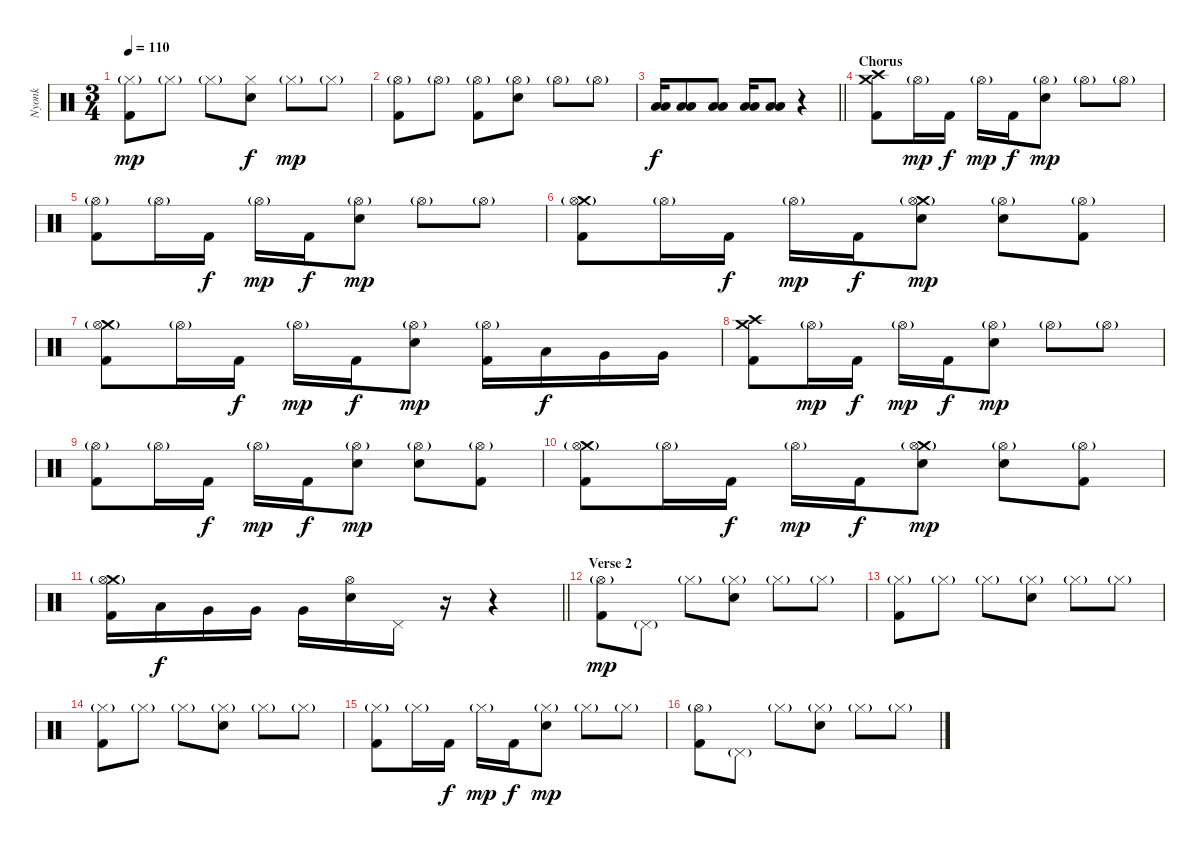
\track ("Nyonk" "Nyonk") {instrument percussion}
\staff {score}
\articulation defaults
\ts (3 4)
\tempo 110
\clef neutral
\ks c
("Hi-Hat (closed)"{g} "Kick (hit) 2").8{dy mp} "Hi-Hat (closed)"{g}.8 "Hi-Hat (closed)"{g}.8 ("Hi-Hat (closed)" "Electric Snare (hit)").8{dy f} "Hi-Hat (closed)"{g}.8{dy mp} "Hi-Hat (closed)"{g}.8 |
("Hi-Hat (open)"{g} "Kick (hit) 2").8 "Hi-Hat (open)"{g}.8 ("Hi-Hat (open)"{g} "Kick (hit) 2").8 ("Hi-Hat (open)"{g} "Electric Snare (hit)").8 "Hi-Hat (open)"{g}.8 "Hi-Hat (open)"{g}.8 |
\barLineRight lightlight
("Low Floor Tom (hit)" "Low Floor Tom (hit)").16{dy f} ("Low Floor Tom (hit)" "Low Floor Tom (hit)").8 ("Low Floor Tom (hit)" "Low Floor Tom (hit)").8 ("Low Floor Tom (hit)" "Low Floor Tom (hit)").16 ("Low Floor Tom (hit)" "Low Floor Tom (hit)").8 r.4 |
\section ("" "Chorus")
("Crash medium (hit)" "Crash high (hit)" "Kick (hit) 2").8 "Hi-Hat (open)"{g}.16{dy mp} "Kick (hit) 2".16{dy f} "Hi-Hat (open)"{g}.16{dy mp} "Kick (hit) 2".16{dy f} ("Hi-Hat (open)"{g} "Electric Snare (hit)").8{dy mp} "Hi-Hat (open)"{g}.8 "Hi-Hat (open)"{g}.8 |
("Hi-Hat (open)"{g} "Kick (hit) 2").8 "Hi-Hat (open)"{g}.16 "Kick (hit) 2".16{dy f} "Hi-Hat (open)"{g}.16{dy mp} "Kick (hit) 2".16{dy f} ("Hi-Hat (open)"{g} "Electric Snare (hit)").8{dy mp} "Hi-Hat (open)"{g}.8 "Hi-Hat (open)"{g}.8 |
("Crash medium (hit)" "Hi-Hat (open)"{g} "Kick (hit) 2").8 "Hi-Hat (open)"{g}.16 "Kick (hit) 2".16{dy f} "Hi-Hat (open)"{g}.16{dy mp} "Kick (hit) 2".16{dy f} ("Crash medium (hit)" "Hi-Hat (open)"{g} "Electric Snare (hit)").8{dy mp} ("Hi-Hat (open)"{g} "Electric Snare (hit)").8 ("Hi-Hat (open)"{g} "Kick (hit) 2").8 |
("Crash medium (hit)" "Hi-Hat (open)"{g} "Kick (hit) 2").8 "Hi-Hat (open)"{g}.16 "Kick (hit) 2".16{dy f} "Hi-Hat (open)"{g}.16{dy mp} "Kick (hit) 2".16{dy f} ("Hi-Hat (open)"{g} "Electric Snare (hit)").8{dy mp} ("Hi-Hat (open)"{g} "Kick (hit) 2").16 "Low Tom (hit)".16{dy f} "Very Low Tom (hit)".16 "Very Low Tom (hit)".16 |
("Crash medium (hit)" "Crash high (hit)" "Kick (hit) 2").8 "Hi-Hat (open)"{g}.16{dy mp} "Kick (hit) 2".16{dy f} "Hi-Hat (open)"{g}.16{dy mp} "Kick (hit) 2".16{dy f} ("Hi-Hat (open)"{g} "Electric Snare (hit)").8{dy mp} "Hi-Hat (open)"{g}.8 "Hi-Hat (open)"{g}.8 |
("Hi-Hat (open)"{g} "Kick (hit) 2").8 "Hi-Hat (open)"{g}.16 "Kick (hit) 2".16{dy f} "Hi-Hat (open)"{g}.16{dy mp} "Kick (hit) 2".16{dy f} ("Hi-Hat (open)"{g} "Electric Snare (hit)").8{dy mp} ("Hi-Hat (open)"{g} "Electric Snare (hit)").8 ("Hi-Hat (open)"{g} "Kick (hit) 2").8 |
("Crash medium (hit)" "Hi-Hat (open)"{g} "Kick (hit) 2").8 "Hi-Hat (open)"{g}.16 "Kick (hit) 2".16{dy f} "Hi-Hat (open)"{g}.16{dy mp} "Kick (hit) 2".16{dy f} ("Crash medium (hit)" "Hi-Hat (open)"{g} "Electric Snare (hit)").8{dy mp} ("Hi-Hat (open)"{g} "Electric Snare (hit)").8 ("Hi-Hat (open)"{g} "Kick (hit) 2").8 |
\barLineRight lightlight
("Crash medium (hit)" "Hi-Hat (open)"{g} "Kick (hit) 2").16 "Low Tom (hit)".16{dy f} "Very Low Tom (hit)".16 "Very Low Tom (hit)".16 "Very Low Tom (hit)".16 ("Hi-Hat (open)" "Electric Snare (hit)").16 "Pedal Hi-Hat (hit)".16 r.16 r.4 |
\section ("" "Verse 2")
("Hi-Hat (open)"{g} "Kick (hit) 2").8{dy mp} "Pedal Hi-Hat (hit)"{g}.8 "Hi-Hat (closed)"{g}.8 ("Hi-Hat (closed)"{g} "Electric Snare (hit)").8 "Hi-Hat (closed)"{g}.8 "Hi-Hat (closed)"{g}.8 |
("Hi-Hat (closed)"{g} "Kick (hit) 2").8 "Hi-Hat (closed)"{g}.8 "Hi-Hat (closed)"{g}.8 ("Hi-Hat (closed)"{g} "Electric Snare (hit)").8 "Hi-Hat (closed)"{g}.8 "Hi-Hat (closed)"{g}.8 |
("Hi-Hat (closed)"{g} "Kick (hit) 2").8 "Hi-Hat (closed)"{g}.8 "Hi-Hat (closed)"{g}.8 ("Hi-Hat (closed)"{g} "Electric Snare (hit)").8 "Hi-Hat (closed)"{g}.8 "Hi-Hat (closed)"{g}.8 |
("Hi-Hat (closed)"{g} "Kick (hit) 2").8 "Hi-Hat (closed)"{g}.16 "Kick (hit) 2".16{dy f} "Hi-Hat (closed)"{g}.16{dy mp} "Kick (hit) 2".16{dy f} ("Hi-Hat (closed)"{g} "Electric Snare (hit)").8{dy mp} "Hi-Hat (closed)"{g}.8 "Hi-Hat (closed)"{g}.8 |
("Hi-Hat (open)"{g} "Kick (hit) 2").8 "Pedal Hi-Hat (hit)"{g}.8 "Hi-Hat (closed)"{g}.8 ("Hi-Hat (closed)"{g} "Electric Snare (hit)").8 "Hi-Hat (closed)"{g}.8 "Hi-Hat (closed)"{g}.8
